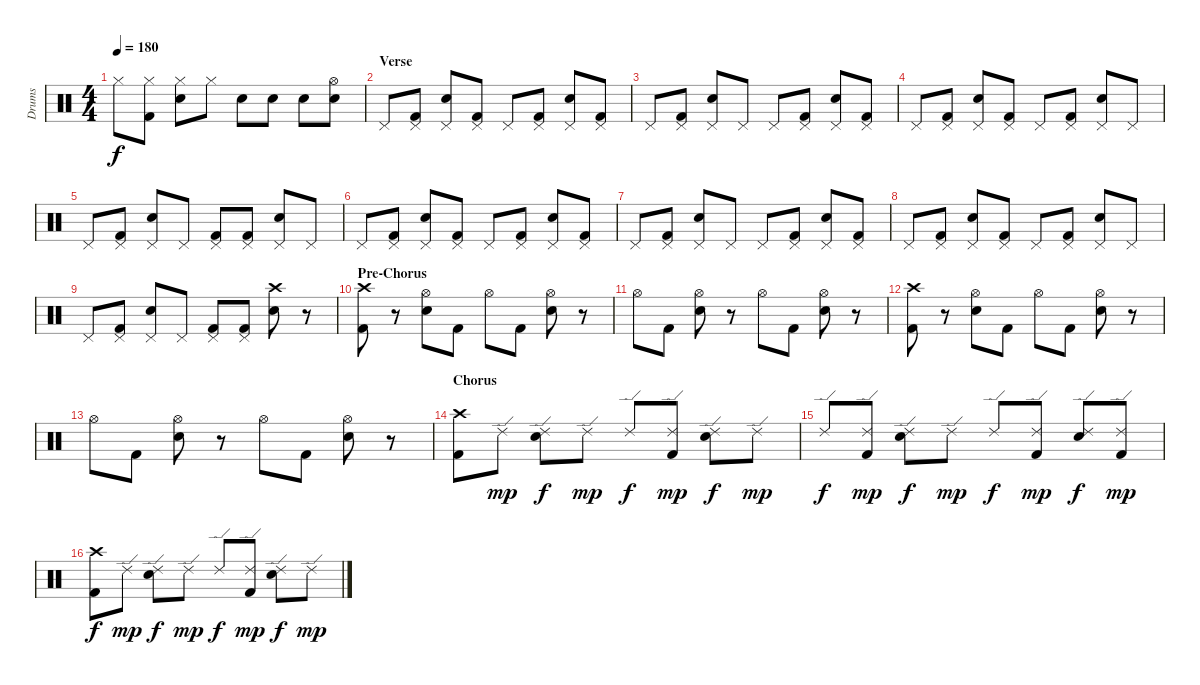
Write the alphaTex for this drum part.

\track ("Drums" "Drums") {instrument percussion}
\staff {score}
\articulation defaults
\ts (4 4)
\tempo 180
\clef neutral
\ks c "Hi-Hat (closed)".8{dy f}
("Hi-Hat (closed)" "Kick (hit) 2").8 ("Hi-Hat (closed)" "Electric Snare (hit)").8 "Hi-Hat (closed)".8 "Electric Snare (hit)".8 "Electric Snare (hit)".8 "Electric Snare (hit)".8 ("Hi-Hat (open)" "Electric Snare (hit)").8 |
\section ("" "Verse")
"Pedal Hi-Hat (hit)".8 ("Pedal Hi-Hat (hit)" "Kick (hit) 2").8 ("Pedal Hi-Hat (hit)" "Electric Snare (hit)").8 ("Pedal Hi-Hat (hit)" "Kick (hit) 2").8 "Pedal Hi-Hat (hit)".8 ("Pedal Hi-Hat (hit)" "Kick (hit) 2").8 ("Pedal Hi-Hat (hit)" "Electric Snare (hit)").8 ("Pedal Hi-Hat (hit)" "Kick (hit) 2").8 |
"Pedal Hi-Hat (hit)".8 ("Pedal Hi-Hat (hit)" "Kick (hit) 2").8 ("Pedal Hi-Hat (hit)" "Electric Snare (hit)").8 "Pedal Hi-Hat (hit)".8 "Pedal Hi-Hat (hit)".8 ("Pedal Hi-Hat (hit)" "Kick (hit) 2").8 ("Pedal Hi-Hat (hit)" "Electric Snare (hit)").8 ("Pedal Hi-Hat (hit)" "Kick (hit) 2").8 |
"Pedal Hi-Hat (hit)".8 ("Pedal Hi-Hat (hit)" "Kick (hit) 2").8 ("Pedal Hi-Hat (hit)" "Electric Snare (hit)").8 ("Pedal Hi-Hat (hit)" "Kick (hit) 2").8 "Pedal Hi-Hat (hit)".8 ("Pedal Hi-Hat (hit)" "Kick (hit) 2").8 ("Pedal Hi-Hat (hit)" "Electric Snare (hit)").8 "Pedal Hi-Hat (hit)".8 |
"Pedal Hi-Hat (hit)".8 ("Pedal Hi-Hat (hit)" "Kick (hit) 2").8 ("Pedal Hi-Hat (hit)" "Electric Snare (hit)").8 "Pedal Hi-Hat (hit)".8 ("Pedal Hi-Hat (hit)" "Kick (hit) 2").8 ("Pedal Hi-Hat (hit)" "Kick (hit) 2").8 ("Pedal Hi-Hat (hit)" "Electric Snare (hit)").8 "Pedal Hi-Hat (hit)".8 |
"Pedal Hi-Hat (hit)".8 ("Pedal Hi-Hat (hit)" "Kick (hit) 2").8 ("Pedal Hi-Hat (hit)" "Electric Snare (hit)").8 ("Pedal Hi-Hat (hit)" "Kick (hit) 2").8 "Pedal Hi-Hat (hit)".8 ("Pedal Hi-Hat (hit)" "Kick (hit) 2").8 ("Pedal Hi-Hat (hit)" "Electric Snare (hit)").8 ("Pedal Hi-Hat (hit)" "Kick (hit) 2").8 |
"Pedal Hi-Hat (hit)".8 ("Pedal Hi-Hat (hit)" "Kick (hit) 2").8 ("Pedal Hi-Hat (hit)" "Electric Snare (hit)").8 "Pedal Hi-Hat (hit)".8 "Pedal Hi-Hat (hit)".8 ("Pedal Hi-Hat (hit)" "Kick (hit) 2").8 ("Pedal Hi-Hat (hit)" "Electric Snare (hit)").8 ("Pedal Hi-Hat (hit)" "Kick (hit) 2").8 |
"Pedal Hi-Hat (hit)".8 ("Pedal Hi-Hat (hit)" "Kick (hit) 2").8 ("Pedal Hi-Hat (hit)" "Electric Snare (hit)").8 ("Pedal Hi-Hat (hit)" "Kick (hit) 2").8 "Pedal Hi-Hat (hit)".8 ("Pedal Hi-Hat (hit)" "Kick (hit) 2").8 ("Pedal Hi-Hat (hit)" "Electric Snare (hit)").8 "Pedal Hi-Hat (hit)".8 |
"Pedal Hi-Hat (hit)".8 ("Pedal Hi-Hat (hit)" "Kick (hit) 2").8 ("Pedal Hi-Hat (hit)" "Electric Snare (hit)").8 "Pedal Hi-Hat (hit)".8 ("Pedal Hi-Hat (hit)" "Kick (hit) 2").8 ("Pedal Hi-Hat (hit)" "Kick (hit) 2").8 ("Crash high (hit)" "Electric Snare (hit)").8 r.8 |
\section ("" "Pre-Chorus")
("Crash high (hit)" "Kick (hit) 2").8 r.8 ("Hi-Hat (open)" "Electric Snare (hit)").8 "Kick (hit) 2".8 "Hi-Hat (open)".8 "Kick (hit) 2".8 ("Hi-Hat (open)" "Electric Snare (hit)").8 r.8 |
"Hi-Hat (open)".8 "Kick (hit) 2".8 ("Hi-Hat (open)" "Electric Snare (hit)").8 r.8 "Hi-Hat (open)".8 "Kick (hit) 2".8 ("Hi-Hat (open)" "Electric Snare (hit)").8 r.8 |
("Crash high (hit)" "Kick (hit) 2").8 r.8 ("Hi-Hat (open)" "Electric Snare (hit)").8 "Kick (hit) 2".8 "Hi-Hat (open)".8 "Kick (hit) 2".8 ("Hi-Hat (open)" "Electric Snare (hit)").8 r.8 |
"Hi-Hat (open)".8 "Kick (hit) 2".8 ("Hi-Hat (open)" "Electric Snare (hit)").8 r.8 "Hi-Hat (open)".8 "Kick (hit) 2".8 ("Hi-Hat (open)" "Electric Snare (hit)").8 r.8 |
\section ("" "Chorus")
("Crash high (hit)" "Kick (hit) 2").8 "Ride (edge) 2".8{dy mp} ("Ride (edge) 2" "Electric Snare (hit)").8{dy f} "Ride (edge) 2".8{dy mp} "Ride (edge) 2".8{dy f} ("Ride (edge) 2" "Kick (hit) 2").8{dy mp} ("Ride (edge) 2" "Electric Snare (hit)").8{dy f} "Ride (edge) 2".8{dy mp} |
"Ride (edge) 2".8{dy f} ("Ride (edge) 2" "Kick (hit) 2").8{dy mp} ("Ride (edge) 2" "Electric Snare (hit)").8{dy f} "Ride (edge) 2".8{dy mp} "Ride (edge) 2".8{dy f} ("Ride (edge) 2" "Kick (hit) 2").8{dy mp} ("Ride (edge) 2" "Electric Snare (hit)").8{dy f} ("Ride (edge) 2" "Kick (hit) 2").8{dy mp} |
("Crash high (hit)" "Kick (hit) 2").8{dy f} "Ride (edge) 2".8{dy mp} ("Ride (edge) 2" "Electric Snare (hit)").8{dy f} "Ride (edge) 2".8{dy mp} "Ride (edge) 2".8{dy f} ("Ride (edge) 2" "Kick (hit) 2").8{dy mp} ("Ride (edge) 2" "Electric Snare (hit)").8{dy f} "Ride (edge) 2".8{dy mp}
